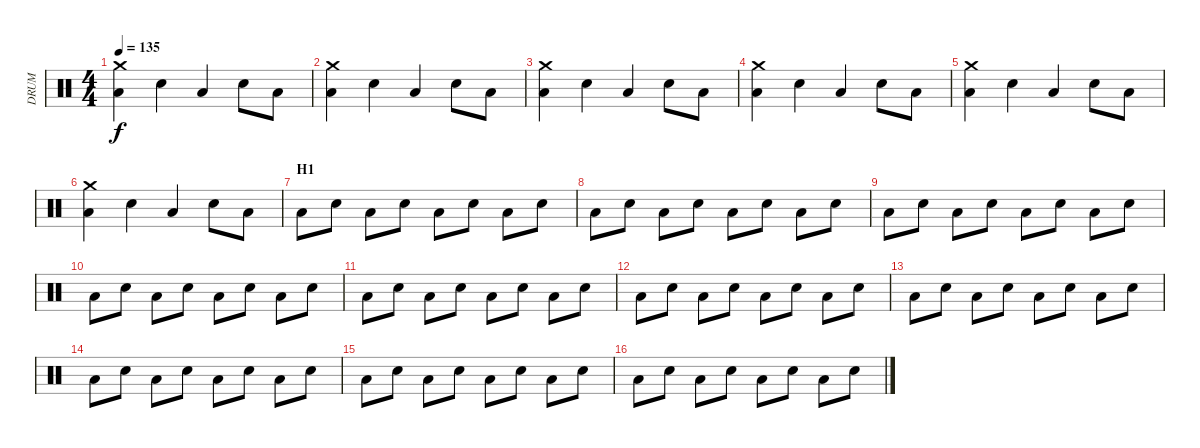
\track ("DRUM" "DRUM") {instrument percussion}
\staff {score}
\articulation defaults
\ts (4 4)
\tempo 135
\clef neutral
\ks c
("Low Floor Tom (hit)" "Crash medium (hit)").4{dy f} "Electric Snare (hit)".4 "Low Floor Tom (hit)".4 "Electric Snare (hit)".8 "Low Floor Tom (hit)".8 |
("Low Floor Tom (hit)" "Crash medium (hit)").4 "Electric Snare (hit)".4 "Low Floor Tom (hit)".4 "Electric Snare (hit)".8 "Low Floor Tom (hit)".8 |
("Low Floor Tom (hit)" "Crash medium (hit)").4 "Electric Snare (hit)".4 "Low Floor Tom (hit)".4 "Electric Snare (hit)".8 "Low Floor Tom (hit)".8 |
("Low Floor Tom (hit)" "Crash medium (hit)").4 "Electric Snare (hit)".4 "Low Floor Tom (hit)".4 "Electric Snare (hit)".8 "Low Floor Tom (hit)".8 |
("Low Floor Tom (hit)" "Crash medium (hit)").4 "Electric Snare (hit)".4 "Low Floor Tom (hit)".4 "Electric Snare (hit)".8 "Low Floor Tom (hit)".8 |
("Low Floor Tom (hit)" "Crash medium (hit)").4 "Electric Snare (hit)".4 "Low Floor Tom (hit)".4 "Electric Snare (hit)".8 "Low Floor Tom (hit)".8 |
\section ("" "H1")
"Low Floor Tom (hit)".8 "Electric Snare (hit)".8 "Low Floor Tom (hit)".8 "Electric Snare (hit)".8 "Low Floor Tom (hit)".8 "Electric Snare (hit)".8 "Low Floor Tom (hit)".8 "Electric Snare (hit)".8 |
"Low Floor Tom (hit)".8 "Electric Snare (hit)".8 "Low Floor Tom (hit)".8 "Electric Snare (hit)".8 "Low Floor Tom (hit)".8 "Electric Snare (hit)".8 "Low Floor Tom (hit)".8 "Electric Snare (hit)".8 |
"Low Floor Tom (hit)".8 "Electric Snare (hit)".8 "Low Floor Tom (hit)".8 "Electric Snare (hit)".8 "Low Floor Tom (hit)".8 "Electric Snare (hit)".8 "Low Floor Tom (hit)".8 "Electric Snare (hit)".8 |
"Low Floor Tom (hit)".8 "Electric Snare (hit)".8 "Low Floor Tom (hit)".8 "Electric Snare (hit)".8 "Low Floor Tom (hit)".8 "Electric Snare (hit)".8 "Low Floor Tom (hit)".8 "Electric Snare (hit)".8 |
"Low Floor Tom (hit)".8 "Electric Snare (hit)".8 "Low Floor Tom (hit)".8 "Electric Snare (hit)".8 "Low Floor Tom (hit)".8 "Electric Snare (hit)".8 "Low Floor Tom (hit)".8 "Electric Snare (hit)".8 |
"Low Floor Tom (hit)".8 "Electric Snare (hit)".8 "Low Floor Tom (hit)".8 "Electric Snare (hit)".8 "Low Floor Tom (hit)".8 "Electric Snare (hit)".8 "Low Floor Tom (hit)".8 "Electric Snare (hit)".8 |
"Low Floor Tom (hit)".8 "Electric Snare (hit)".8 "Low Floor Tom (hit)".8 "Electric Snare (hit)".8 "Low Floor Tom (hit)".8 "Electric Snare (hit)".8 "Low Floor Tom (hit)".8 "Electric Snare (hit)".8 |
"Low Floor Tom (hit)".8 "Electric Snare (hit)".8 "Low Floor Tom (hit)".8 "Electric Snare (hit)".8 "Low Floor Tom (hit)".8 "Electric Snare (hit)".8 "Low Floor Tom (hit)".8 "Electric Snare (hit)".8 |
"Low Floor Tom (hit)".8 "Electric Snare (hit)".8 "Low Floor Tom (hit)".8 "Electric Snare (hit)".8 "Low Floor Tom (hit)".8 "Electric Snare (hit)".8 "Low Floor Tom (hit)".8 "Electric Snare (hit)".8 |
"Low Floor Tom (hit)".8 "Electric Snare (hit)".8 "Low Floor Tom (hit)".8 "Electric Snare (hit)".8 "Low Floor Tom (hit)".8 "Electric Snare (hit)".8 "Low Floor Tom (hit)".8 "Electric Snare (hit)".8
